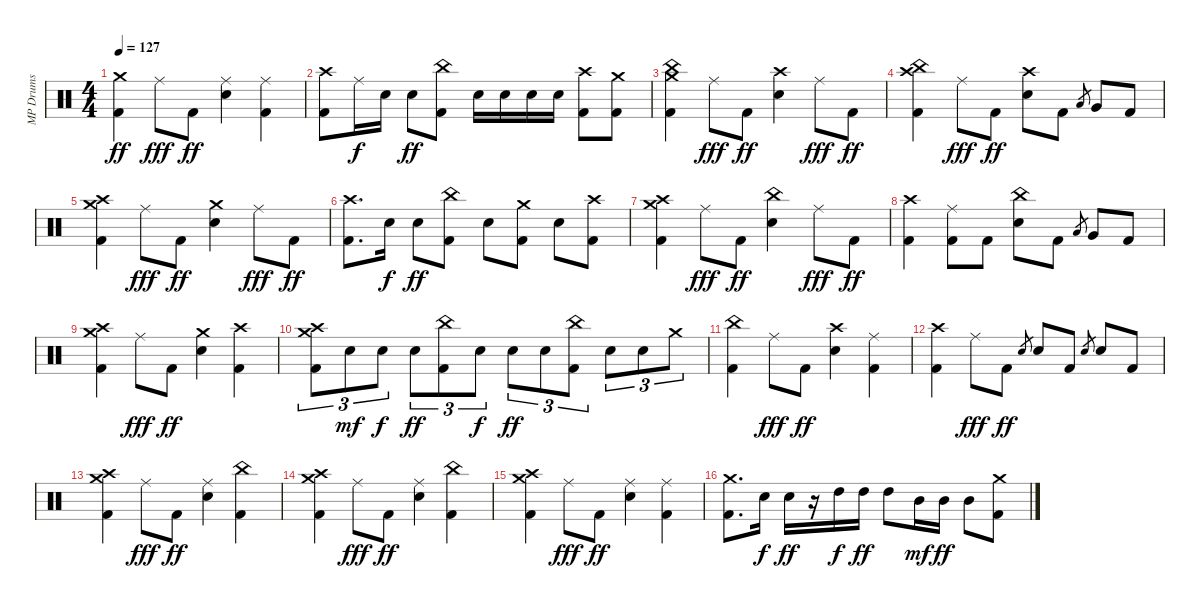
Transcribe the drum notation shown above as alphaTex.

\track ("MP Drums" "MP Drums") {instrument percussion}
\staff {score}
\articulation defaults
\ts (4 4)
\tempo 127
\clef neutral
\ks c
("Crash medium (hit)" "Kick (hit) 2").4{dy ff} "Ride (middle)".8{dy fff} "Kick (hit) 2".8{dy ff} ("Ride (middle)" "Snare (hit) 2").4 ("Ride (middle)" "Kick (hit) 2").4 |
("Crash high (hit)" "Kick (hit) 2").8 "Ride (middle)".16{dy f} "Snare (hit) 2".16 "Snare (hit) 2".8{dy ff} ("China (hit)" "Kick (hit) 2").8 "Snare (hit) 2".16 "Snare (hit) 2".16 "Snare (hit) 2".16 "Snare (hit) 2".16 ("Crash high (hit)" "Kick (hit) 2").8 ("Crash medium (hit)" "Kick (hit) 2").8 |
("China (hit)" "Crash medium (hit)" "Kick (hit) 2").4 "Ride (middle)".8{dy fff} "Kick (hit) 2".8{dy ff} ("Crash high (hit)" "Snare (hit) 2").4 "Ride (middle)".8{dy fff} "Kick (hit) 2".8{dy ff} |
("China (hit)" "Crash high (hit)" "Kick (hit) 2").4 "Ride (middle)".8{dy fff} "Kick (hit) 2".8{dy ff} ("Crash high (hit)" "Snare (hit) 2").8 "Kick (hit) 2".8 "Low Tom (hit)".8{gr} "Very Low Tom (hit)".8 "Kick (hit) 2".8 |
("Crash high (hit)" "Crash medium (hit)" "Kick (hit) 2").4 "Ride (middle)".8{dy fff} "Kick (hit) 2".8{dy ff} ("Crash medium (hit)" "Snare (hit) 2").4 "Ride (middle)".8{dy fff} "Kick (hit) 2".8{dy ff} |
("Crash high (hit)" "Kick (hit) 2").8{d} "Snare (hit) 2".16{dy f} "Snare (hit) 2".8{dy ff} ("China (hit)" "Kick (hit) 2").8 "Snare (hit) 2".8 ("Crash medium (hit)" "Kick (hit) 2").8 "Snare (hit) 2".8 ("Crash high (hit)" "Kick (hit) 2").8 |
("Crash high (hit)" "Crash medium (hit)" "Kick (hit) 2").4 "Ride (middle)".8{dy fff} "Kick (hit) 2".8{dy ff} ("China (hit)" "Snare (hit) 2").4 "Ride (middle)".8{dy fff} "Kick (hit) 2".8{dy ff} |
("Crash high (hit)" "Kick (hit) 2").4 ("Ride (middle)" "Kick (hit) 2").8 "Kick (hit) 2".8 ("China (hit)" "Snare (hit) 2").8 "Kick (hit) 2".8 "Low Tom (hit)".8{gr} "Very Low Tom (hit)".8 "Kick (hit) 2".8 |
("Crash high (hit)" "Crash medium (hit)" "Kick (hit) 2").4 "Ride (middle)".8{dy fff} "Kick (hit) 2".8{dy ff} ("Crash medium (hit)" "Snare (hit) 2").4 ("Crash high (hit)" "Kick (hit) 2").4 |
("Crash high (hit)" "Crash medium (hit)" "Kick (hit) 2").8{tu (3 2)} "Snare (hit) 2".8{tu (3 2) dy mf} "Snare (hit) 2".8{tu (3 2) dy f} "Snare (hit) 2".8{tu (3 2) dy ff} ("China (hit)" "Kick (hit) 2").8{tu (3 2)} "Snare (hit) 2".8{tu (3 2) dy f} "Snare (hit) 2".8{tu (3 2) dy ff} "Snare (hit) 2".8{tu (3 2)} ("China (hit)" "Kick (hit) 2").8{tu (3 2)} "Snare (hit) 2".8{tu (3 2)} "Snare (hit) 2".8{tu (3 2)} "Crash medium (hit)".8{tu (3 2)} |
("China (hit)" "Kick (hit) 2").4 "Ride (middle)".8{dy fff} "Kick (hit) 2".8{dy ff} ("Crash high (hit)" "Snare (hit) 2").4 ("Ride (middle)" "Kick (hit) 2").4 |
("Crash high (hit)" "Kick (hit) 2").4 "Ride (middle)".8{dy fff} "Kick (hit) 2".8{dy ff} "Snare (hit) 2".8{gr} "Snare (hit) 2".8 "Kick (hit) 2".8 "Snare (hit) 2".8{gr} "Snare (hit) 2".8 "Kick (hit) 2".8 |
("Crash high (hit)" "Crash medium (hit)" "Kick (hit) 2").4 "Ride (middle)".8{dy fff} "Kick (hit) 2".8{dy ff} ("Ride (middle)" "Snare (hit) 2").4 ("China (hit)" "Kick (hit) 2").4 |
("Crash high (hit)" "Crash medium (hit)" "Kick (hit) 2").4 "Ride (middle)".8{dy fff} "Kick (hit) 2".8{dy ff} ("Ride (middle)" "Snare (hit) 2").4 ("China (hit)" "Kick (hit) 2").4 |
("Crash medium (hit)" "Crash high (hit)" "Kick (hit) 2").4 "Ride (middle)".8{dy fff} "Kick (hit) 2".8{dy ff} ("Ride (middle)" "Snare (hit) 2").4 ("Ride (middle)" "Kick (hit) 2").4 |
("Crash medium (hit)" "Kick (hit) 2").8{d} "Snare (hit) 2".16{dy f} "Snare (hit) 2".16{dy ff} r.16 "High Tom (hit)".16{dy f} "High Tom (hit)".16{dy ff} "High Tom (hit)".8 "Mid Tom (hit)".16{dy mf} "Mid Tom (hit)".16{dy ff} "Mid Tom (hit)".8 ("Crash medium (hit)" "Kick (hit) 2").8
